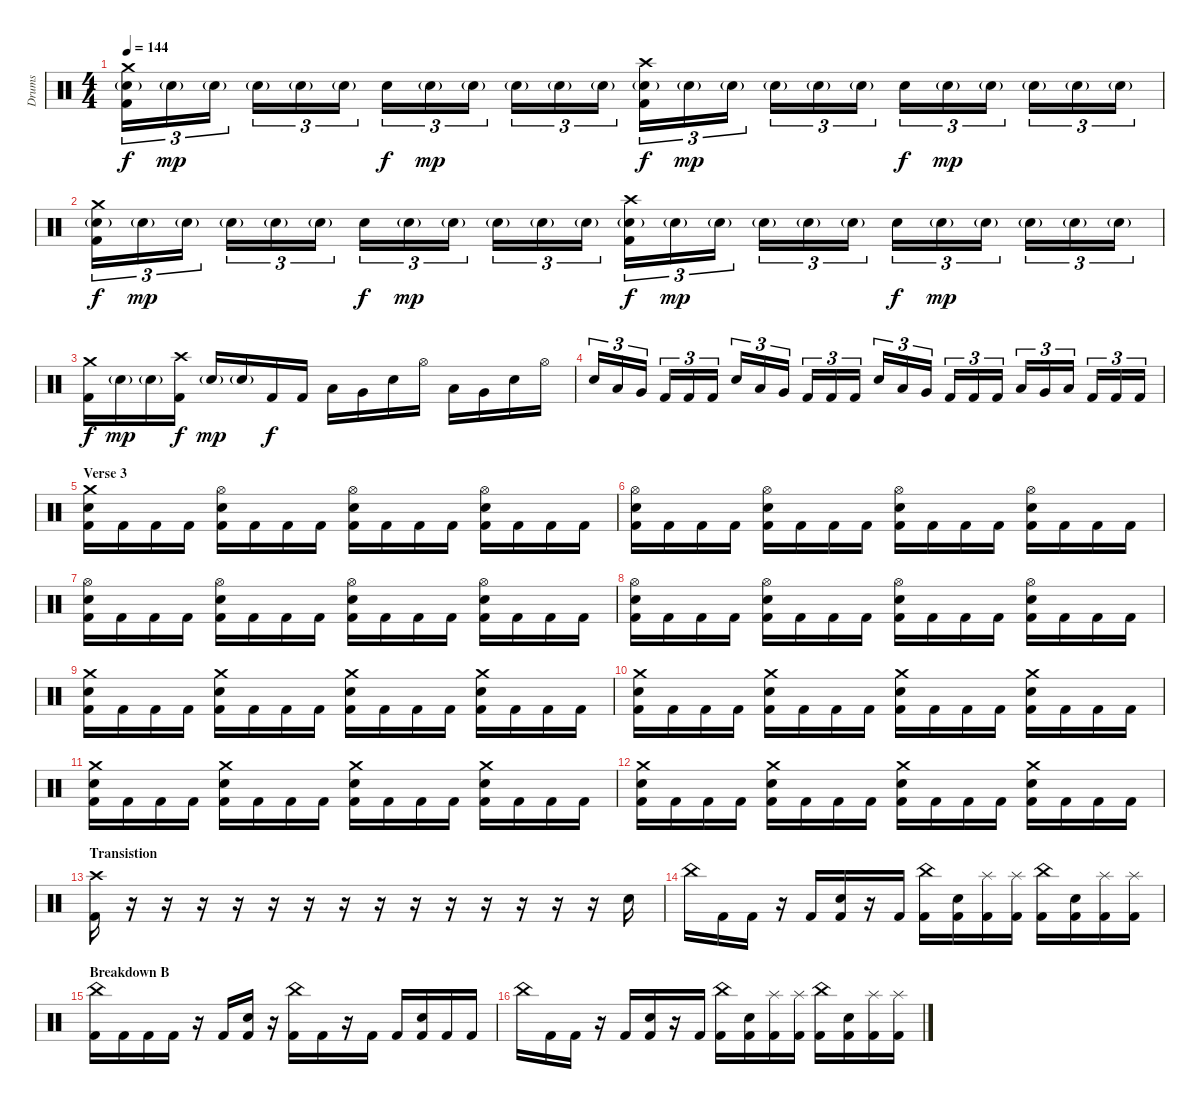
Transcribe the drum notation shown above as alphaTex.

\track ("Drums" "Drums") {instrument percussion}
\staff {score}
\articulation defaults
\ts (4 4)
\tempo 144
\clef neutral
\ks c
("Crash medium (hit)" "Snare (hit) 2"{g} "Kick (hit) 2").16{tu (3 2) dy f} "Snare (hit) 2"{g}.16{tu (3 2) dy mp} "Snare (hit) 2"{g}.16{tu (3 2)} "Snare (hit) 2"{g}.16{tu (3 2)} "Snare (hit) 2"{g}.16{tu (3 2)} "Snare (hit) 2"{g}.16{tu (3 2)} "Electric Snare (hit)".16{tu (3 2) dy f} "Snare (hit) 2"{g}.16{tu (3 2) dy mp} "Snare (hit) 2"{g}.16{tu (3 2)} "Snare (hit) 2"{g}.16{tu (3 2)} "Snare (hit) 2"{g}.16{tu (3 2)} "Snare (hit) 2"{g}.16{tu (3 2)} ("Crash high (hit)" "Snare (hit) 2"{g} "Kick (hit) 2").16{tu (3 2) dy f} "Snare (hit) 2"{g}.16{tu (3 2) dy mp} "Snare (hit) 2"{g}.16{tu (3 2)} "Snare (hit) 2"{g}.16{tu (3 2)} "Snare (hit) 2"{g}.16{tu (3 2)} "Snare (hit) 2"{g}.16{tu (3 2)} "Electric Snare (hit)".16{tu (3 2) dy f} "Snare (hit) 2"{g}.16{tu (3 2) dy mp} "Snare (hit) 2"{g}.16{tu (3 2)} "Snare (hit) 2"{g}.16{tu (3 2)} "Snare (hit) 2"{g}.16{tu (3 2)} "Snare (hit) 2"{g}.16{tu (3 2)} |
("Crash medium (hit)" "Snare (hit) 2"{g} "Kick (hit) 2").16{tu (3 2) dy f} "Snare (hit) 2"{g}.16{tu (3 2) dy mp} "Snare (hit) 2"{g}.16{tu (3 2)} "Snare (hit) 2"{g}.16{tu (3 2)} "Snare (hit) 2"{g}.16{tu (3 2)} "Snare (hit) 2"{g}.16{tu (3 2)} "Electric Snare (hit)".16{tu (3 2) dy f} "Snare (hit) 2"{g}.16{tu (3 2) dy mp} "Snare (hit) 2"{g}.16{tu (3 2)} "Snare (hit) 2"{g}.16{tu (3 2)} "Snare (hit) 2"{g}.16{tu (3 2)} "Snare (hit) 2"{g}.16{tu (3 2)} ("Crash high (hit)" "Snare (hit) 2"{g} "Kick (hit) 2").16{tu (3 2) dy f} "Snare (hit) 2"{g}.16{tu (3 2) dy mp} "Snare (hit) 2"{g}.16{tu (3 2)} "Snare (hit) 2"{g}.16{tu (3 2)} "Snare (hit) 2"{g}.16{tu (3 2)} "Snare (hit) 2"{g}.16{tu (3 2)} "Electric Snare (hit)".16{tu (3 2) dy f} "Snare (hit) 2"{g}.16{tu (3 2) dy mp} "Snare (hit) 2"{g}.16{tu (3 2)} "Snare (hit) 2"{g}.16{tu (3 2)} "Snare (hit) 2"{g}.16{tu (3 2)} "Snare (hit) 2"{g}.16{tu (3 2)} |
("Crash medium (hit)" "Kick (hit) 2").16{dy f} "Snare (hit) 2"{g}.16{dy mp} "Snare (hit) 2"{g}.16 ("Crash high (hit)" "Kick (hit) 2").16{dy f} "Snare (hit) 2"{g}.16{dy mp} "Snare (hit) 2"{g}.16 "Kick (hit) 2".16{dy f} "Kick (hit) 2".16 "Low Tom (hit)".16 "Very Low Tom (hit)".16 "Electric Snare (hit)".16 "Hi-Hat (open)".16 "Low Tom (hit)".16 "Very Low Tom (hit)".16 "Electric Snare (hit)".16 "Hi-Hat (open)".16 |
"Electric Snare (hit)".16{tu (3 2)} "Low Tom (hit)".16{tu (3 2)} "Very Low Tom (hit)".16{tu (3 2)} "Kick (hit) 2".16{tu (3 2)} "Kick (hit) 2".16{tu (3 2)} "Kick (hit) 2".16{tu (3 2)} "Electric Snare (hit)".16{tu (3 2)} "Low Tom (hit)".16{tu (3 2)} "Very Low Tom (hit)".16{tu (3 2)} "Kick (hit) 2".16{tu (3 2)} "Kick (hit) 2".16{tu (3 2)} "Kick (hit) 2".16{tu (3 2)} "Electric Snare (hit)".16{tu (3 2)} "Low Tom (hit)".16{tu (3 2)} "Very Low Tom (hit)".16{tu (3 2)} "Kick (hit) 2".16{tu (3 2)} "Kick (hit) 2".16{tu (3 2)} "Kick (hit) 2".16{tu (3 2)} "Low Tom (hit)".16{tu (3 2)} "Very Low Tom (hit)".16{tu (3 2)} "Low Floor Tom (hit)".16{tu (3 2)} "Kick (hit) 2".16{tu (3 2)} "Kick (hit) 2".16{tu (3 2)} "Kick (hit) 2".16{tu (3 2)} |
\section ("" "Verse 3")
("Crash medium (hit)" "Electric Snare (hit)" "Kick (hit) 2").16 "Kick (hit) 2".16 "Kick (hit) 2".16 "Kick (hit) 2".16 ("Hi-Hat (open)" "Electric Snare (hit)" "Kick (hit) 2").16 "Kick (hit) 2".16 "Kick (hit) 2".16 "Kick (hit) 2".16 ("Hi-Hat (open)" "Electric Snare (hit)" "Kick (hit) 2").16 "Kick (hit) 2".16 "Kick (hit) 2".16 "Kick (hit) 2".16 ("Hi-Hat (open)" "Electric Snare (hit)" "Kick (hit) 2").16 "Kick (hit) 2".16 "Kick (hit) 2".16 "Kick (hit) 2".16 |
("Hi-Hat (open)" "Electric Snare (hit)" "Kick (hit) 2").16 "Kick (hit) 2".16 "Kick (hit) 2".16 "Kick (hit) 2".16 ("Hi-Hat (open)" "Electric Snare (hit)" "Kick (hit) 2").16 "Kick (hit) 2".16 "Kick (hit) 2".16 "Kick (hit) 2".16 ("Hi-Hat (open)" "Electric Snare (hit)" "Kick (hit) 2").16 "Kick (hit) 2".16 "Kick (hit) 2".16 "Kick (hit) 2".16 ("Hi-Hat (open)" "Electric Snare (hit)" "Kick (hit) 2").16 "Kick (hit) 2".16 "Kick (hit) 2".16 "Kick (hit) 2".16 |
("Hi-Hat (open)" "Electric Snare (hit)" "Kick (hit) 2").16 "Kick (hit) 2".16 "Kick (hit) 2".16 "Kick (hit) 2".16 ("Hi-Hat (open)" "Electric Snare (hit)" "Kick (hit) 2").16 "Kick (hit) 2".16 "Kick (hit) 2".16 "Kick (hit) 2".16 ("Hi-Hat (open)" "Electric Snare (hit)" "Kick (hit) 2").16 "Kick (hit) 2".16 "Kick (hit) 2".16 "Kick (hit) 2".16 ("Hi-Hat (open)" "Electric Snare (hit)" "Kick (hit) 2").16 "Kick (hit) 2".16 "Kick (hit) 2".16 "Kick (hit) 2".16 |
("Hi-Hat (open)" "Electric Snare (hit)" "Kick (hit) 2").16 "Kick (hit) 2".16 "Kick (hit) 2".16 "Kick (hit) 2".16 ("Hi-Hat (open)" "Electric Snare (hit)" "Kick (hit) 2").16 "Kick (hit) 2".16 "Kick (hit) 2".16 "Kick (hit) 2".16 ("Hi-Hat (open)" "Electric Snare (hit)" "Kick (hit) 2").16 "Kick (hit) 2".16 "Kick (hit) 2".16 "Kick (hit) 2".16 ("Hi-Hat (open)" "Electric Snare (hit)" "Kick (hit) 2").16 "Kick (hit) 2".16 "Kick (hit) 2".16 "Kick (hit) 2".16 |
("Crash medium (hit)" "Electric Snare (hit)" "Kick (hit) 2").16 "Kick (hit) 2".16 "Kick (hit) 2".16 "Kick (hit) 2".16 ("Crash medium (hit)" "Electric Snare (hit)" "Kick (hit) 2").16 "Kick (hit) 2".16 "Kick (hit) 2".16 "Kick (hit) 2".16 ("Crash medium (hit)" "Electric Snare (hit)" "Kick (hit) 2").16 "Kick (hit) 2".16 "Kick (hit) 2".16 "Kick (hit) 2".16 ("Crash medium (hit)" "Electric Snare (hit)" "Kick (hit) 2").16 "Kick (hit) 2".16 "Kick (hit) 2".16 "Kick (hit) 2".16 |
("Crash medium (hit)" "Electric Snare (hit)" "Kick (hit) 2").16 "Kick (hit) 2".16 "Kick (hit) 2".16 "Kick (hit) 2".16 ("Crash medium (hit)" "Electric Snare (hit)" "Kick (hit) 2").16 "Kick (hit) 2".16 "Kick (hit) 2".16 "Kick (hit) 2".16 ("Crash medium (hit)" "Electric Snare (hit)" "Kick (hit) 2").16 "Kick (hit) 2".16 "Kick (hit) 2".16 "Kick (hit) 2".16 ("Crash medium (hit)" "Electric Snare (hit)" "Kick (hit) 2").16 "Kick (hit) 2".16 "Kick (hit) 2".16 "Kick (hit) 2".16 |
("Crash medium (hit)" "Electric Snare (hit)" "Kick (hit) 2").16 "Kick (hit) 2".16 "Kick (hit) 2".16 "Kick (hit) 2".16 ("Crash medium (hit)" "Electric Snare (hit)" "Kick (hit) 2").16 "Kick (hit) 2".16 "Kick (hit) 2".16 "Kick (hit) 2".16 ("Crash medium (hit)" "Electric Snare (hit)" "Kick (hit) 2").16 "Kick (hit) 2".16 "Kick (hit) 2".16 "Kick (hit) 2".16 ("Crash medium (hit)" "Electric Snare (hit)" "Kick (hit) 2").16 "Kick (hit) 2".16 "Kick (hit) 2".16 "Kick (hit) 2".16 |
("Crash medium (hit)" "Electric Snare (hit)" "Kick (hit) 2").16 "Kick (hit) 2".16 "Kick (hit) 2".16 "Kick (hit) 2".16 ("Crash medium (hit)" "Electric Snare (hit)" "Kick (hit) 2").16 "Kick (hit) 2".16 "Kick (hit) 2".16 "Kick (hit) 2".16 ("Crash medium (hit)" "Electric Snare (hit)" "Kick (hit) 2").16 "Kick (hit) 2".16 "Kick (hit) 2".16 "Kick (hit) 2".16 ("Crash medium (hit)" "Electric Snare (hit)" "Kick (hit) 2").16 "Kick (hit) 2".16 "Kick (hit) 2".16 "Kick (hit) 2".16 |
\section ("" "Transistion")
("Crash high (hit)" "Kick (hit) 2").16 r.16 r.16 r.16 r.16 r.16 r.16 r.16 r.16 r.16 r.16 r.16 r.16 r.16 r.16 "Electric Snare (hit)".16 |
"China (hit)".16 "Kick (hit) 2".16 "Kick (hit) 2".16 r.16 "Kick (hit) 2".16 ("Electric Snare (hit)" "Kick (hit) 2").16 r.16 "Kick (hit) 2".16 ("China (hit)" "Kick (hit) 2").16 ("Electric Snare (hit)" "Kick (hit) 2").16 ("Splash (hit)" "Kick (hit) 2").16 ("Splash (hit)" "Kick (hit) 2").16 ("China (hit)" "Kick (hit) 2").16 ("Electric Snare (hit)" "Kick (hit) 2").16 ("Splash (hit)" "Kick (hit) 2").16 ("Splash (hit)" "Kick (hit) 2").16 |
\section ("" "Breakdown B")
("China (hit)" "Kick (hit) 2").16 "Kick (hit) 2".16 "Kick (hit) 2".16 "Kick (hit) 2".16 r.16 "Kick (hit) 2".16 ("Electric Snare (hit)" "Kick (hit) 2").16 r.16 ("China (hit)" "Kick (hit) 2").16 "Kick (hit) 2".16 r.16 "Kick (hit) 2".16 "Kick (hit) 2".16 ("Electric Snare (hit)" "Kick (hit) 2").16 "Kick (hit) 2".16 "Kick (hit) 2".16 |
"China (hit)".16 "Kick (hit) 2".16 "Kick (hit) 2".16 r.16 "Kick (hit) 2".16 ("Electric Snare (hit)" "Kick (hit) 2").16 r.16 "Kick (hit) 2".16 ("China (hit)" "Kick (hit) 2").16 ("Electric Snare (hit)" "Kick (hit) 2").16 ("Splash (hit)" "Kick (hit) 2").16 ("Splash (hit)" "Kick (hit) 2").16 ("China (hit)" "Kick (hit) 2").16 ("Electric Snare (hit)" "Kick (hit) 2").16 ("Splash (hit)" "Kick (hit) 2").16 ("Splash (hit)" "Kick (hit) 2").16
